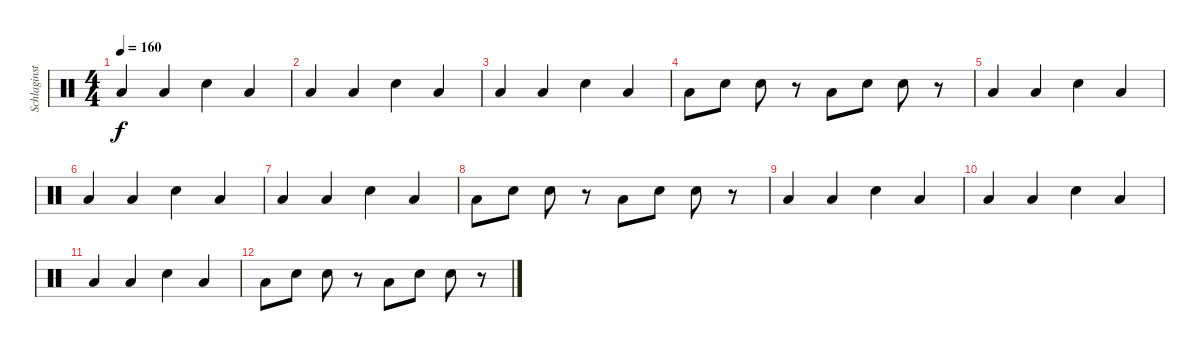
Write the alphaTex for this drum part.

\track ("Schlaginstrumente - Auswahl" "Schlaginst") {instrument percussion}
\staff {score}
\articulation defaults
\ts (4 4)
\tempo 160
\clef neutral
\ks c "Low Floor Tom (hit)".4{dy f} "Low Floor Tom (hit)".4 "Snare (hit) 2".4 "Low Floor Tom (hit)".4
|
"Low Floor Tom (hit)".4 "Low Floor Tom (hit)".4 "Snare (hit) 2".4 "Low Floor Tom (hit)".4 |
"Low Floor Tom (hit)".4 "Low Floor Tom (hit)".4 "Snare (hit) 2".4 "Low Floor Tom (hit)".4 |
"Low Floor Tom (hit)".8 "Snare (hit) 2".8 "Snare (hit) 2".8 r.8 "Low Floor Tom (hit)".8 "Snare (hit) 2".8 "Snare (hit) 2".8 r.8 |
"Low Floor Tom (hit)".4 "Low Floor Tom (hit)".4 "Snare (hit) 2".4 "Low Floor Tom (hit)".4 |
"Low Floor Tom (hit)".4 "Low Floor Tom (hit)".4 "Snare (hit) 2".4 "Low Floor Tom (hit)".4 |
"Low Floor Tom (hit)".4 "Low Floor Tom (hit)".4 "Snare (hit) 2".4 "Low Floor Tom (hit)".4 |
"Low Floor Tom (hit)".8 "Snare (hit) 2".8 "Snare (hit) 2".8 r.8 "Low Floor Tom (hit)".8 "Snare (hit) 2".8 "Snare (hit) 2".8 r.8 |
"Low Floor Tom (hit)".4 "Low Floor Tom (hit)".4 "Snare (hit) 2".4 "Low Floor Tom (hit)".4 |
"Low Floor Tom (hit)".4 "Low Floor Tom (hit)".4 "Snare (hit) 2".4 "Low Floor Tom (hit)".4 |
"Low Floor Tom (hit)".4 "Low Floor Tom (hit)".4 "Snare (hit) 2".4 "Low Floor Tom (hit)".4 |
"Low Floor Tom (hit)".8 "Snare (hit) 2".8 "Snare (hit) 2".8 r.8 "Low Floor Tom (hit)".8 "Snare (hit) 2".8 "Snare (hit) 2".8 r.8
